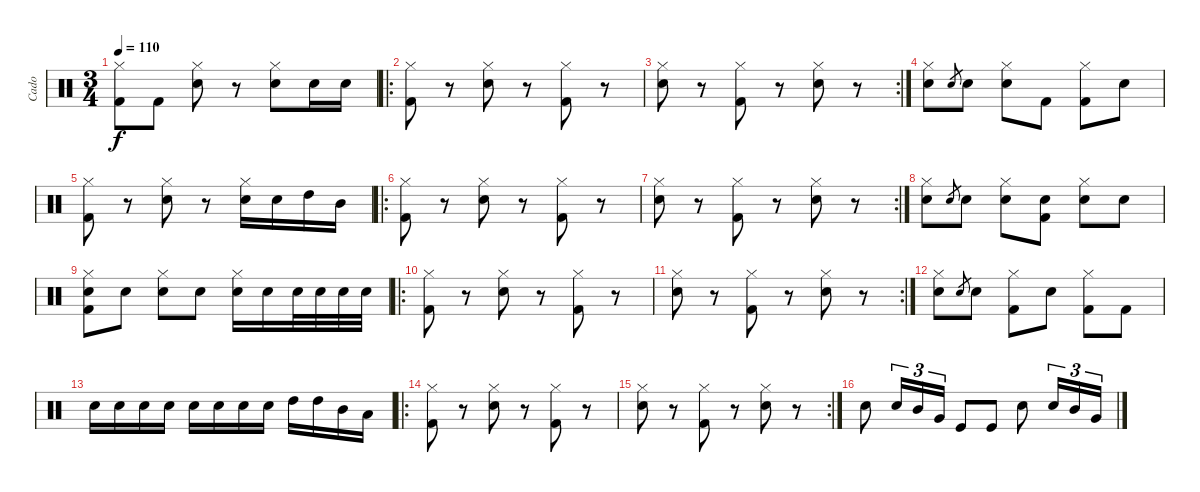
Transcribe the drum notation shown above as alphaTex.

\track ("Cado" "Cado") {instrument percussion}
\staff {score}
\articulation defaults
\ts (3 4)
\tempo 110
\clef neutral
\ks c
("Hi-Hat (closed)" "Kick (hit) 2").8{dy f} "Kick (hit) 2".8 ("Hi-Hat (closed)" "Snare (hit) 2").8 r.8 ("Hi-Hat (closed)" "Snare (hit) 2").8 "Snare (hit) 2".16 "Snare (hit) 2".16 |
\ro
("Hi-Hat (closed)" "Kick (hit) 2").8 r.8 ("Hi-Hat (closed)" "Snare (hit) 2").8 r.8 ("Hi-Hat (closed)" "Kick (hit) 2").8 r.8 |
\rc 2
("Hi-Hat (closed)" "Snare (hit) 2").8 r.8 ("Hi-Hat (closed)" "Kick (hit) 2").8 r.8 ("Hi-Hat (closed)" "Snare (hit) 2").8 r.8 |
("Hi-Hat (closed)" "Snare (hit) 2").8 "Snare (hit) 2".8{gr} "Snare (hit) 2".8 ("Hi-Hat (closed)" "Snare (hit) 2").8 "Kick (hit) 2".8 ("Hi-Hat (closed)" "Kick (hit) 2").8 "Snare (hit) 2".8 |
("Hi-Hat (closed)" "Kick (hit) 2").8 r.8 ("Hi-Hat (closed)" "Snare (hit) 2").8 r.8 ("Hi-Hat (closed)" "Snare (hit) 2").16 "Snare (hit) 2".16 "High Tom (hit)".16 "Mid Tom (hit)".16 |
\ro
("Hi-Hat (closed)" "Kick (hit) 2").8 r.8 ("Hi-Hat (closed)" "Snare (hit) 2").8 r.8 ("Hi-Hat (closed)" "Kick (hit) 2").8 r.8 |
\rc 2
("Hi-Hat (closed)" "Snare (hit) 2").8 r.8 ("Hi-Hat (closed)" "Kick (hit) 2").8 r.8 ("Hi-Hat (closed)" "Snare (hit) 2").8 r.8 |
("Hi-Hat (closed)" "Snare (hit) 2").8 "Snare (hit) 2".8{gr} "Snare (hit) 2".8 ("Hi-Hat (closed)" "Snare (hit) 2").8 ("Kick (hit) 2" "Snare (hit) 2").8 ("Hi-Hat (closed)" "Snare (hit) 2").8 "Snare (hit) 2".8 |
("Hi-Hat (closed)" "Kick (hit) 2" "Snare (hit) 2").8 "Snare (hit) 2".8 ("Hi-Hat (closed)" "Snare (hit) 2").8 "Snare (hit) 2".8 ("Hi-Hat (closed)" "Snare (hit) 2").16 "Snare (hit) 2".16 "Snare (hit) 2".32 "Snare (hit) 2".32 "Snare (hit) 2".32 "Snare (hit) 2".32 |
\ro
("Hi-Hat (closed)" "Kick (hit) 2").8 r.8 ("Hi-Hat (closed)" "Snare (hit) 2").8 r.8 ("Hi-Hat (closed)" "Kick (hit) 2").8 r.8 |
\rc 2
("Hi-Hat (closed)" "Snare (hit) 2").8 r.8 ("Hi-Hat (closed)" "Kick (hit) 2").8 r.8 ("Hi-Hat (closed)" "Snare (hit) 2").8 r.8 |
("Hi-Hat (closed)" "Snare (hit) 2").8 "Snare (hit) 2".8{gr} "Snare (hit) 2".8 ("Hi-Hat (closed)" "Kick (hit) 2").8 "Snare (hit) 2".8 ("Hi-Hat (closed)" "Kick (hit) 2").8 "Kick (hit) 2".8 |
"Snare (hit) 2".16 "Snare (hit) 2".16 "Snare (hit) 2".16 "Snare (hit) 2".16 "Snare (hit) 2".16 "Snare (hit) 2".16 "Snare (hit) 2".16 "Snare (hit) 2".16 "High Tom (hit)".16 "High Tom (hit)".16 "Mid Tom (hit)".16 "Low Tom (hit)".16 |
\ro
("Hi-Hat (closed)" "Kick (hit) 2").8 r.8 ("Hi-Hat (closed)" "Snare (hit) 2").8 r.8 ("Hi-Hat (closed)" "Kick (hit) 2").8 r.8 |
\rc 2
("Hi-Hat (closed)" "Snare (hit) 2").8 r.8 ("Hi-Hat (closed)" "Kick (hit) 2").8 r.8 ("Hi-Hat (closed)" "Snare (hit) 2").8 r.8 |
"Snare (hit) 2".8 "Snare (hit) 2".16{tu (3 2)} "Mid Tom (hit)".16{tu (3 2)} "Very Low Tom (hit)".16{tu (3 2)} "Kick (hit)".8 "Kick (hit)".8 "Snare (hit) 2".8 "Snare (hit) 2".16{tu (3 2)} "Mid Tom (hit)".16{tu (3 2)} "Very Low Tom (hit)".16{tu (3 2)}
